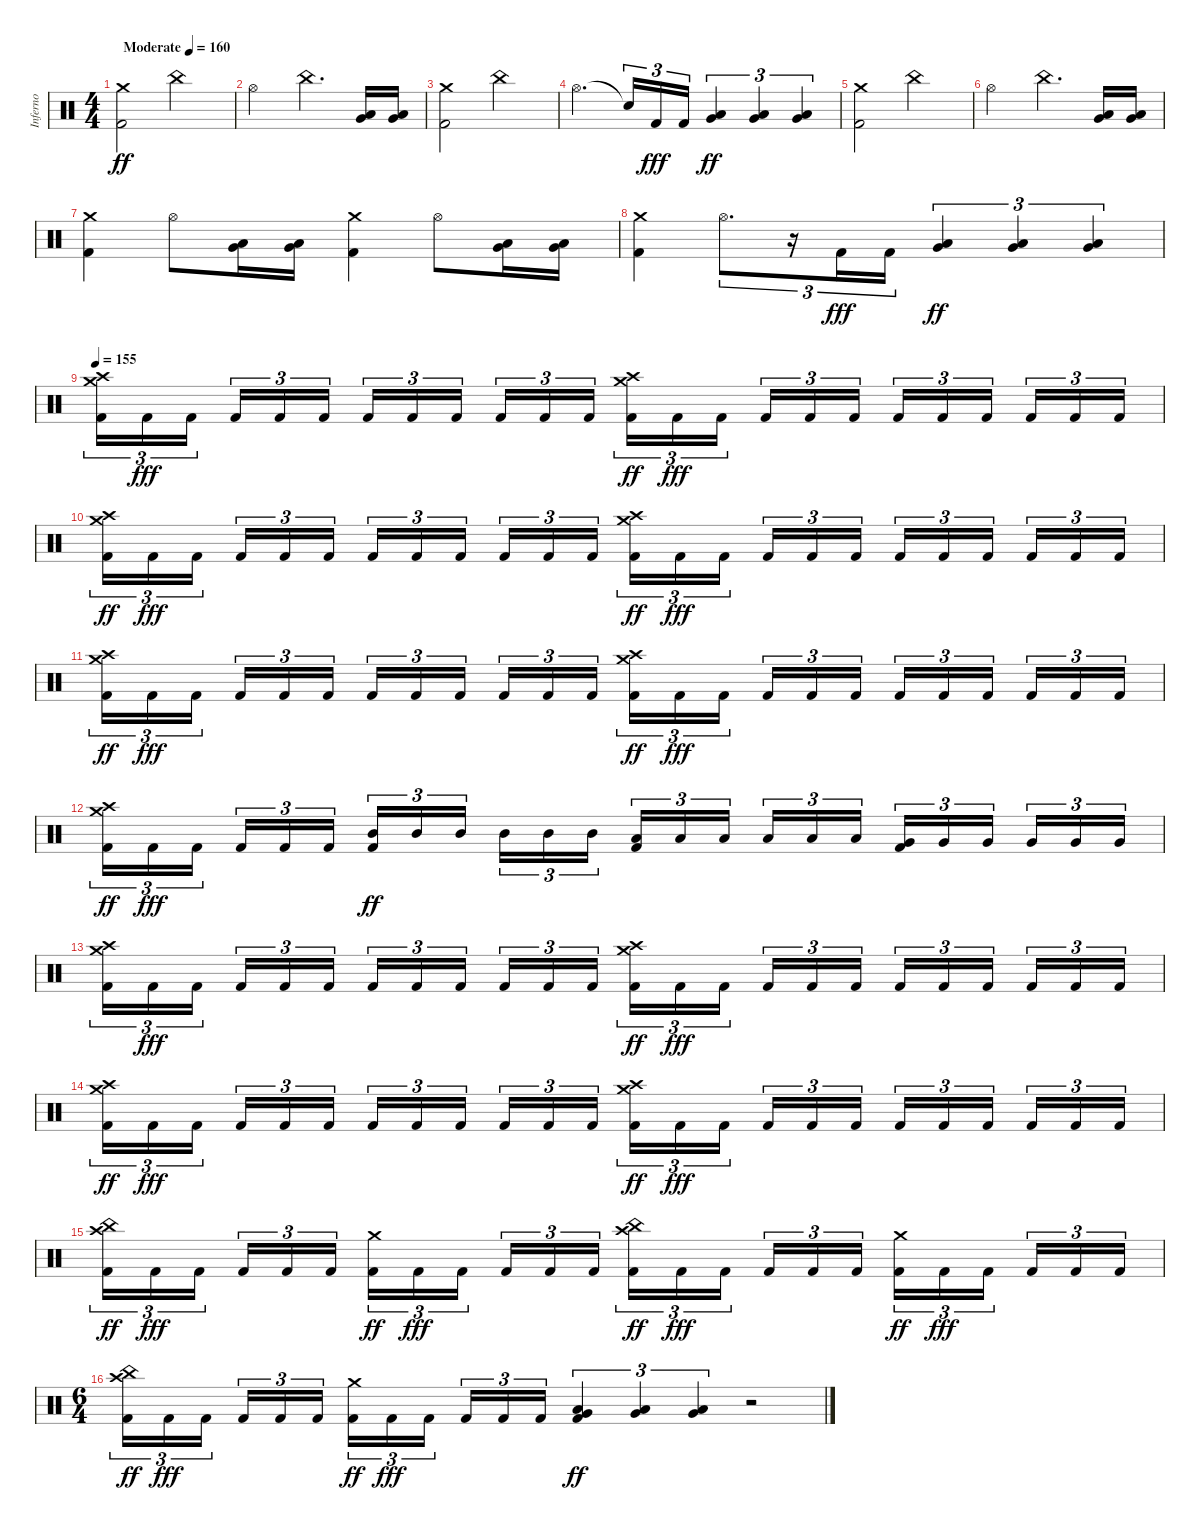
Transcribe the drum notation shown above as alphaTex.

\track ("Inferno" "Inferno") {instrument percussion}
\staff {score}
\articulation defaults
\ts (4 4)
\tempo (160 "Moderate")
\clef neutral
\ks c
("Kick (hit) 2" "Crash medium (hit)").2{dy ff} "China (hit)".2 |
"Hi-Hat (open)".2 "China (hit)".4{d} ("Very Low Tom (hit)" "Low Floor Tom (hit)").16 ("Very Low Tom (hit)" "Low Floor Tom (hit)").16 |
("Kick (hit) 2" "Crash medium (hit)").2 "China (hit)".2 |
"Hi-Hat (open)".4{d} "Snare (hit)"{t}.16{tu (3 2)} "Kick (hit) 2".16{tu (3 2) dy fff} "Kick (hit) 2".16{tu (3 2)} ("Low Tom (hit)" "Very Low Tom (hit)").4{tu (3 2) dy ff} ("Low Tom (hit)" "Very Low Tom (hit)").4{tu (3 2)} ("Very Low Tom (hit)" "Low Floor Tom (hit)").4{tu (3 2)} |
("Kick (hit) 2" "Crash medium (hit)").2 "China (hit)".2 |
"Hi-Hat (open)".2 "China (hit)".4{d} ("Very Low Tom (hit)" "Low Floor Tom (hit)").16 ("Very Low Tom (hit)" "Low Floor Tom (hit)").16 |
("Kick (hit) 2" "Crash medium (hit)").4 "Hi-Hat (open)".8 ("Very Low Tom (hit)" "Low Floor Tom (hit)").16 ("Very Low Tom (hit)" "Low Floor Tom (hit)").16 ("Kick (hit) 2" "Crash medium (hit)").4 "Hi-Hat (open)".8 ("Very Low Tom (hit)" "Low Floor Tom (hit)").16 ("Very Low Tom (hit)" "Low Floor Tom (hit)").16 |
("Kick (hit) 2" "Crash medium (hit)").4 "Hi-Hat (open)".8{d tu (3 2)} r.16{tu (3 2)} "Kick (hit) 2".16{tu (3 2) dy fff} "Kick (hit) 2".16{tu (3 2)} ("Low Tom (hit)" "Very Low Tom (hit)").4{tu (3 2) dy ff} ("Low Tom (hit)" "Very Low Tom (hit)").4{tu (3 2)} ("Very Low Tom (hit)" "Low Floor Tom (hit)").4{tu (3 2)} |
\tempo 155
("Kick (hit) 2" "Crash medium (hit)" "Crash high (hit)").16{tu (3 2)} "Kick (hit) 2".16{tu (3 2) dy fff} "Kick (hit) 2".16{tu (3 2) beam splitsecondary} "Kick (hit) 2".16{tu (3 2)} "Kick (hit) 2".16{tu (3 2)} "Kick (hit) 2".16{tu (3 2)} "Kick (hit) 2".16{tu (3 2)} "Kick (hit) 2".16{tu (3 2)} "Kick (hit) 2".16{tu (3 2) beam splitsecondary} "Kick (hit) 2".16{tu (3 2)} "Kick (hit) 2".16{tu (3 2)} "Kick (hit) 2".16{tu (3 2)} ("Kick (hit) 2" "Crash medium (hit)" "Crash high (hit)").16{tu (3 2) dy ff} "Kick (hit) 2".16{tu (3 2) dy fff} "Kick (hit) 2".16{tu (3 2) beam splitsecondary} "Kick (hit) 2".16{tu (3 2)} "Kick (hit) 2".16{tu (3 2)} "Kick (hit) 2".16{tu (3 2)} "Kick (hit) 2".16{tu (3 2)} "Kick (hit) 2".16{tu (3 2)} "Kick (hit) 2".16{tu (3 2) beam splitsecondary} "Kick (hit) 2".16{tu (3 2)} "Kick (hit) 2".16{tu (3 2)} "Kick (hit) 2".16{tu (3 2)} |
("Kick (hit) 2" "Crash medium (hit)" "Crash high (hit)").16{tu (3 2) dy ff} "Kick (hit) 2".16{tu (3 2) dy fff} "Kick (hit) 2".16{tu (3 2) beam splitsecondary} "Kick (hit) 2".16{tu (3 2)} "Kick (hit) 2".16{tu (3 2)} "Kick (hit) 2".16{tu (3 2)} "Kick (hit) 2".16{tu (3 2)} "Kick (hit) 2".16{tu (3 2)} "Kick (hit) 2".16{tu (3 2) beam splitsecondary} "Kick (hit) 2".16{tu (3 2)} "Kick (hit) 2".16{tu (3 2)} "Kick (hit) 2".16{tu (3 2)} ("Kick (hit) 2" "Crash medium (hit)" "Crash high (hit)").16{tu (3 2) dy ff} "Kick (hit) 2".16{tu (3 2) dy fff} "Kick (hit) 2".16{tu (3 2) beam splitsecondary} "Kick (hit) 2".16{tu (3 2)} "Kick (hit) 2".16{tu (3 2)} "Kick (hit) 2".16{tu (3 2)} "Kick (hit) 2".16{tu (3 2)} "Kick (hit) 2".16{tu (3 2)} "Kick (hit) 2".16{tu (3 2) beam splitsecondary} "Kick (hit) 2".16{tu (3 2)} "Kick (hit) 2".16{tu (3 2)} "Kick (hit) 2".16{tu (3 2)} |
("Kick (hit) 2" "Crash medium (hit)" "Crash high (hit)").16{tu (3 2) dy ff} "Kick (hit) 2".16{tu (3 2) dy fff} "Kick (hit) 2".16{tu (3 2) beam splitsecondary} "Kick (hit) 2".16{tu (3 2)} "Kick (hit) 2".16{tu (3 2)} "Kick (hit) 2".16{tu (3 2)} "Kick (hit) 2".16{tu (3 2)} "Kick (hit) 2".16{tu (3 2)} "Kick (hit) 2".16{tu (3 2) beam splitsecondary} "Kick (hit) 2".16{tu (3 2)} "Kick (hit) 2".16{tu (3 2)} "Kick (hit) 2".16{tu (3 2)} ("Kick (hit) 2" "Crash medium (hit)" "Crash high (hit)").16{tu (3 2) dy ff} "Kick (hit) 2".16{tu (3 2) dy fff} "Kick (hit) 2".16{tu (3 2) beam splitsecondary} "Kick (hit) 2".16{tu (3 2)} "Kick (hit) 2".16{tu (3 2)} "Kick (hit) 2".16{tu (3 2)} "Kick (hit) 2".16{tu (3 2)} "Kick (hit) 2".16{tu (3 2)} "Kick (hit) 2".16{tu (3 2) beam splitsecondary} "Kick (hit) 2".16{tu (3 2)} "Kick (hit) 2".16{tu (3 2)} "Kick (hit) 2".16{tu (3 2)} |
("Kick (hit) 2" "Crash medium (hit)" "Crash high (hit)").16{tu (3 2) dy ff} "Kick (hit) 2".16{tu (3 2) dy fff} "Kick (hit) 2".16{tu (3 2) beam splitsecondary} "Kick (hit) 2".16{tu (3 2)} "Kick (hit) 2".16{tu (3 2)} "Kick (hit) 2".16{tu (3 2)} ("Kick (hit) 2" "Mid Tom (hit)").16{tu (3 2) dy ff} "Mid Tom (hit)".16{tu (3 2)} "Mid Tom (hit)".16{tu (3 2) beam splitsecondary} "Mid Tom (hit)".16{tu (3 2)} "Mid Tom (hit)".16{tu (3 2)} "Mid Tom (hit)".16{tu (3 2)} ("Kick (hit) 2" "Low Tom (hit)").16{tu (3 2)} "Low Tom (hit)".16{tu (3 2)} "Low Tom (hit)".16{tu (3 2) beam splitsecondary} "Low Tom (hit)".16{tu (3 2)} "Low Tom (hit)".16{tu (3 2)} "Low Tom (hit)".16{tu (3 2)} ("Kick (hit) 2" "Very Low Tom (hit)").16{tu (3 2)} "Very Low Tom (hit)".16{tu (3 2)} "Very Low Tom (hit)".16{tu (3 2) beam splitsecondary} "Very Low Tom (hit)".16{tu (3 2)} "Very Low Tom (hit)".16{tu (3 2)} "Very Low Tom (hit)".16{tu (3 2)} |
("Kick (hit) 2" "Crash medium (hit)" "Crash high (hit)").16{tu (3 2)} "Kick (hit) 2".16{tu (3 2) dy fff} "Kick (hit) 2".16{tu (3 2) beam splitsecondary} "Kick (hit) 2".16{tu (3 2)} "Kick (hit) 2".16{tu (3 2)} "Kick (hit) 2".16{tu (3 2)} "Kick (hit) 2".16{tu (3 2)} "Kick (hit) 2".16{tu (3 2)} "Kick (hit) 2".16{tu (3 2) beam splitsecondary} "Kick (hit) 2".16{tu (3 2)} "Kick (hit) 2".16{tu (3 2)} "Kick (hit) 2".16{tu (3 2)} ("Kick (hit) 2" "Crash medium (hit)" "Crash high (hit)").16{tu (3 2) dy ff} "Kick (hit) 2".16{tu (3 2) dy fff} "Kick (hit) 2".16{tu (3 2) beam splitsecondary} "Kick (hit) 2".16{tu (3 2)} "Kick (hit) 2".16{tu (3 2)} "Kick (hit) 2".16{tu (3 2)} "Kick (hit) 2".16{tu (3 2)} "Kick (hit) 2".16{tu (3 2)} "Kick (hit) 2".16{tu (3 2) beam splitsecondary} "Kick (hit) 2".16{tu (3 2)} "Kick (hit) 2".16{tu (3 2)} "Kick (hit) 2".16{tu (3 2)} |
("Kick (hit) 2" "Crash medium (hit)" "Crash high (hit)").16{tu (3 2) dy ff} "Kick (hit) 2".16{tu (3 2) dy fff} "Kick (hit) 2".16{tu (3 2) beam splitsecondary} "Kick (hit) 2".16{tu (3 2)} "Kick (hit) 2".16{tu (3 2)} "Kick (hit) 2".16{tu (3 2)} "Kick (hit) 2".16{tu (3 2)} "Kick (hit) 2".16{tu (3 2)} "Kick (hit) 2".16{tu (3 2) beam splitsecondary} "Kick (hit) 2".16{tu (3 2)} "Kick (hit) 2".16{tu (3 2)} "Kick (hit) 2".16{tu (3 2)} ("Kick (hit) 2" "Crash medium (hit)" "Crash high (hit)").16{tu (3 2) dy ff} "Kick (hit) 2".16{tu (3 2) dy fff} "Kick (hit) 2".16{tu (3 2) beam splitsecondary} "Kick (hit) 2".16{tu (3 2)} "Kick (hit) 2".16{tu (3 2)} "Kick (hit) 2".16{tu (3 2)} "Kick (hit) 2".16{tu (3 2)} "Kick (hit) 2".16{tu (3 2)} "Kick (hit) 2".16{tu (3 2) beam splitsecondary} "Kick (hit) 2".16{tu (3 2)} "Kick (hit) 2".16{tu (3 2)} "Kick (hit) 2".16{tu (3 2)} |
("Kick (hit) 2" "China (hit)" "Crash high (hit)").16{tu (3 2) dy ff} "Kick (hit) 2".16{tu (3 2) dy fff} "Kick (hit) 2".16{tu (3 2) beam splitsecondary} "Kick (hit) 2".16{tu (3 2)} "Kick (hit) 2".16{tu (3 2)} "Kick (hit) 2".16{tu (3 2)} ("Kick (hit) 2" "Crash medium (hit)").16{tu (3 2) dy ff} "Kick (hit) 2".16{tu (3 2) dy fff} "Kick (hit) 2".16{tu (3 2) beam splitsecondary} "Kick (hit) 2".16{tu (3 2)} "Kick (hit) 2".16{tu (3 2)} "Kick (hit) 2".16{tu (3 2)} ("Kick (hit) 2" "China (hit)" "Crash high (hit)").16{tu (3 2) dy ff} "Kick (hit) 2".16{tu (3 2) dy fff} "Kick (hit) 2".16{tu (3 2) beam splitsecondary} "Kick (hit) 2".16{tu (3 2)} "Kick (hit) 2".16{tu (3 2)} "Kick (hit) 2".16{tu (3 2)} ("Kick (hit) 2" "Crash medium (hit)").16{tu (3 2) dy ff} "Kick (hit) 2".16{tu (3 2) dy fff} "Kick (hit) 2".16{tu (3 2) beam splitsecondary} "Kick (hit) 2".16{tu (3 2)} "Kick (hit) 2".16{tu (3 2)} "Kick (hit) 2".16{tu (3 2)} |
\ts (6 4)
("Kick (hit) 2" "China (hit)" "Crash high (hit)").16{tu (3 2) dy ff} "Kick (hit) 2".16{tu (3 2) dy fff} "Kick (hit) 2".16{tu (3 2) beam splitsecondary} "Kick (hit) 2".16{tu (3 2)} "Kick (hit) 2".16{tu (3 2)} "Kick (hit) 2".16{tu (3 2) beam splitsecondary} ("Kick (hit) 2" "Crash medium (hit)").16{tu (3 2) dy ff} "Kick (hit) 2".16{tu (3 2) dy fff} "Kick (hit) 2".16{tu (3 2) beam splitsecondary} "Kick (hit) 2".16{tu (3 2)} "Kick (hit) 2".16{tu (3 2)} "Kick (hit) 2".16{tu (3 2)} ("Kick (hit) 2" "Low Tom (hit)" "Very Low Tom (hit)").4{tu (3 2) dy ff} ("Low Tom (hit)" "Very Low Tom (hit)").4{tu (3 2)} ("Very Low Tom (hit)" "Low Floor Tom (hit)").4{tu (3 2)} r.2
